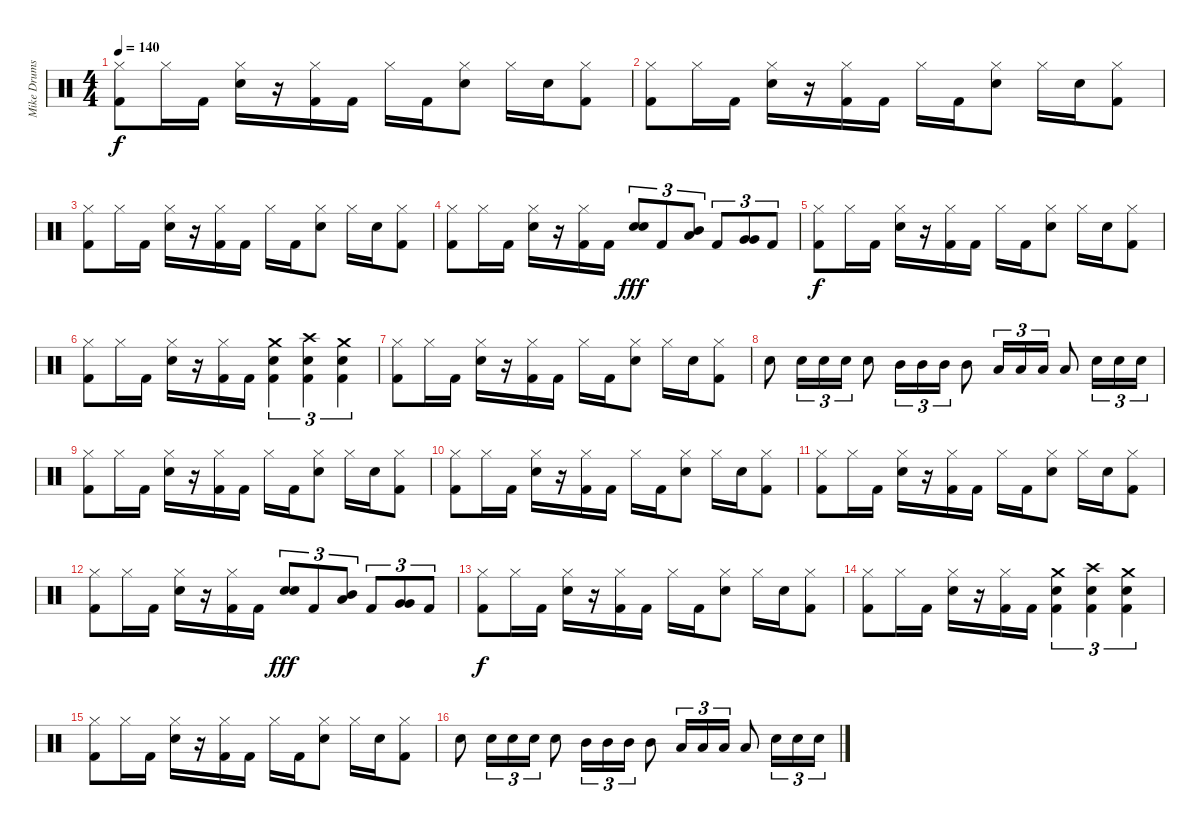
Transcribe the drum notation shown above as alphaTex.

\track ("Mike Drums" "Mike Drums") {instrument percussion}
\staff {score}
\articulation defaults
\ts (4 4)
\tempo 140
\clef neutral
\ks c
("Hi-Hat (closed)" "Kick (hit) 2").8{dy f} "Hi-Hat (closed)".16 "Kick (hit) 2".16 ("Hi-Hat (closed)" "Electric Snare (hit)").16 r.16 ("Hi-Hat (closed)" "Kick (hit) 2").16 "Kick (hit) 2".16 "Hi-Hat (closed)".16 "Kick (hit) 2".16 ("Hi-Hat (closed)" "Electric Snare (hit)").8 "Hi-Hat (closed)".16 "Electric Snare (hit)".16 ("Hi-Hat (closed)" "Kick (hit) 2").8 |
("Hi-Hat (closed)" "Kick (hit) 2").8 "Hi-Hat (closed)".16 "Kick (hit) 2".16 ("Hi-Hat (closed)" "Electric Snare (hit)").16 r.16 ("Hi-Hat (closed)" "Kick (hit) 2").16 "Kick (hit) 2".16 "Hi-Hat (closed)".16 "Kick (hit) 2".16 ("Hi-Hat (closed)" "Electric Snare (hit)").8 "Hi-Hat (closed)".16 "Electric Snare (hit)".16 ("Hi-Hat (closed)" "Kick (hit) 2").8 |
("Hi-Hat (closed)" "Kick (hit) 2").8 "Hi-Hat (closed)".16 "Kick (hit) 2".16 ("Hi-Hat (closed)" "Electric Snare (hit)").16 r.16 ("Hi-Hat (closed)" "Kick (hit) 2").16 "Kick (hit) 2".16 "Hi-Hat (closed)".16 "Kick (hit) 2".16 ("Hi-Hat (closed)" "Electric Snare (hit)").8 "Hi-Hat (closed)".16 "Electric Snare (hit)".16 ("Hi-Hat (closed)" "Kick (hit) 2").8 |
("Hi-Hat (closed)" "Kick (hit) 2").8 "Hi-Hat (closed)".16 "Kick (hit) 2".16 ("Hi-Hat (closed)" "Electric Snare (hit)").16 r.16 ("Hi-Hat (closed)" "Kick (hit) 2").16 "Kick (hit) 2".16 ("Electric Snare (hit)" "Electric Snare (hit)").8{tu (3 2) dy fff} "Kick (hit) 2".8{tu (3 2)} ("Mid Tom (hit)" "Low Tom (hit)").8{tu (3 2)} "Kick (hit) 2".8{tu (3 2)} ("Very Low Tom (hit)" "Very Low Tom (hit)").8{tu (3 2)} "Kick (hit) 2".8{tu (3 2)} |
("Hi-Hat (closed)" "Kick (hit) 2").8{dy f} "Hi-Hat (closed)".16 "Kick (hit) 2".16 ("Hi-Hat (closed)" "Electric Snare (hit)").16 r.16 ("Hi-Hat (closed)" "Kick (hit) 2").16 "Kick (hit) 2".16 "Hi-Hat (closed)".16 "Kick (hit) 2".16 ("Hi-Hat (closed)" "Electric Snare (hit)").8 "Hi-Hat (closed)".16 "Electric Snare (hit)".16 ("Hi-Hat (closed)" "Kick (hit) 2").8 |
("Hi-Hat (closed)" "Kick (hit) 2").8 "Hi-Hat (closed)".16 "Kick (hit) 2".16 ("Hi-Hat (closed)" "Electric Snare (hit)").16 r.16 ("Hi-Hat (closed)" "Kick (hit) 2").16 "Kick (hit) 2".16 ("Crash medium (hit)" "Electric Snare (hit)" "Kick (hit) 2").4{tu (3 2)} ("Crash high (hit)" "Electric Snare (hit)" "Kick (hit) 2").4{tu (3 2)} ("Crash medium (hit)" "Electric Snare (hit)" "Kick (hit) 2").4{tu (3 2)} |
("Hi-Hat (closed)" "Kick (hit) 2").8 "Hi-Hat (closed)".16 "Kick (hit) 2".16 ("Hi-Hat (closed)" "Electric Snare (hit)").16 r.16 ("Hi-Hat (closed)" "Kick (hit) 2").16 "Kick (hit) 2".16 "Hi-Hat (closed)".16 "Kick (hit) 2".16 ("Hi-Hat (closed)" "Electric Snare (hit)").8 "Hi-Hat (closed)".16 "Electric Snare (hit)".16 ("Hi-Hat (closed)" "Kick (hit) 2").8 |
"Electric Snare (hit)".8 "Electric Snare (hit)".16{tu (3 2)} "Electric Snare (hit)".16{tu (3 2)} "Electric Snare (hit)".16{tu (3 2)} "Electric Snare (hit)".8 "Mid Tom (hit)".16{tu (3 2)} "Mid Tom (hit)".16{tu (3 2)} "Mid Tom (hit)".16{tu (3 2)} "Mid Tom (hit)".8 "Low Tom (hit)".16{tu (3 2)} "Low Tom (hit)".16{tu (3 2)} "Low Tom (hit)".16{tu (3 2)} "Low Tom (hit)".8 "Electric Snare (hit)".16{tu (3 2)} "Electric Snare (hit)".16{tu (3 2)} "Electric Snare (hit)".16{tu (3 2)} |
("Hi-Hat (closed)" "Kick (hit) 2").8 "Hi-Hat (closed)".16 "Kick (hit) 2".16 ("Hi-Hat (closed)" "Electric Snare (hit)").16 r.16 ("Hi-Hat (closed)" "Kick (hit) 2").16 "Kick (hit) 2".16 "Hi-Hat (closed)".16 "Kick (hit) 2".16 ("Hi-Hat (closed)" "Electric Snare (hit)").8 "Hi-Hat (closed)".16 "Electric Snare (hit)".16 ("Hi-Hat (closed)" "Kick (hit) 2").8 |
("Hi-Hat (closed)" "Kick (hit) 2").8 "Hi-Hat (closed)".16 "Kick (hit) 2".16 ("Hi-Hat (closed)" "Electric Snare (hit)").16 r.16 ("Hi-Hat (closed)" "Kick (hit) 2").16 "Kick (hit) 2".16 "Hi-Hat (closed)".16 "Kick (hit) 2".16 ("Hi-Hat (closed)" "Electric Snare (hit)").8 "Hi-Hat (closed)".16 "Electric Snare (hit)".16 ("Hi-Hat (closed)" "Kick (hit) 2").8 |
("Hi-Hat (closed)" "Kick (hit) 2").8 "Hi-Hat (closed)".16 "Kick (hit) 2".16 ("Hi-Hat (closed)" "Electric Snare (hit)").16 r.16 ("Hi-Hat (closed)" "Kick (hit) 2").16 "Kick (hit) 2".16 "Hi-Hat (closed)".16 "Kick (hit) 2".16 ("Hi-Hat (closed)" "Electric Snare (hit)").8 "Hi-Hat (closed)".16 "Electric Snare (hit)".16 ("Hi-Hat (closed)" "Kick (hit) 2").8 |
("Hi-Hat (closed)" "Kick (hit) 2").8 "Hi-Hat (closed)".16 "Kick (hit) 2".16 ("Hi-Hat (closed)" "Electric Snare (hit)").16 r.16 ("Hi-Hat (closed)" "Kick (hit) 2").16 "Kick (hit) 2".16 ("Electric Snare (hit)" "Electric Snare (hit)").8{tu (3 2) dy fff} "Kick (hit) 2".8{tu (3 2)} ("Mid Tom (hit)" "Low Tom (hit)").8{tu (3 2)} "Kick (hit) 2".8{tu (3 2)} ("Very Low Tom (hit)" "Very Low Tom (hit)").8{tu (3 2)} "Kick (hit) 2".8{tu (3 2)} |
("Hi-Hat (closed)" "Kick (hit) 2").8{dy f} "Hi-Hat (closed)".16 "Kick (hit) 2".16 ("Hi-Hat (closed)" "Electric Snare (hit)").16 r.16 ("Hi-Hat (closed)" "Kick (hit) 2").16 "Kick (hit) 2".16 "Hi-Hat (closed)".16 "Kick (hit) 2".16 ("Hi-Hat (closed)" "Electric Snare (hit)").8 "Hi-Hat (closed)".16 "Electric Snare (hit)".16 ("Hi-Hat (closed)" "Kick (hit) 2").8 |
("Hi-Hat (closed)" "Kick (hit) 2").8 "Hi-Hat (closed)".16 "Kick (hit) 2".16 ("Hi-Hat (closed)" "Electric Snare (hit)").16 r.16 ("Hi-Hat (closed)" "Kick (hit) 2").16 "Kick (hit) 2".16 ("Crash medium (hit)" "Electric Snare (hit)" "Kick (hit) 2").4{tu (3 2)} ("Crash high (hit)" "Electric Snare (hit)" "Kick (hit) 2").4{tu (3 2)} ("Crash medium (hit)" "Electric Snare (hit)" "Kick (hit) 2").4{tu (3 2)} |
("Hi-Hat (closed)" "Kick (hit) 2").8 "Hi-Hat (closed)".16 "Kick (hit) 2".16 ("Hi-Hat (closed)" "Electric Snare (hit)").16 r.16 ("Hi-Hat (closed)" "Kick (hit) 2").16 "Kick (hit) 2".16 "Hi-Hat (closed)".16 "Kick (hit) 2".16 ("Hi-Hat (closed)" "Electric Snare (hit)").8 "Hi-Hat (closed)".16 "Electric Snare (hit)".16 ("Hi-Hat (closed)" "Kick (hit) 2").8 |
"Electric Snare (hit)".8 "Electric Snare (hit)".16{tu (3 2)} "Electric Snare (hit)".16{tu (3 2)} "Electric Snare (hit)".16{tu (3 2)} "Electric Snare (hit)".8 "Mid Tom (hit)".16{tu (3 2)} "Mid Tom (hit)".16{tu (3 2)} "Mid Tom (hit)".16{tu (3 2)} "Mid Tom (hit)".8 "Low Tom (hit)".16{tu (3 2)} "Low Tom (hit)".16{tu (3 2)} "Low Tom (hit)".16{tu (3 2)} "Low Tom (hit)".8 "Electric Snare (hit)".16{tu (3 2)} "Electric Snare (hit)".16{tu (3 2)} "Electric Snare (hit)".16{tu (3 2)}
